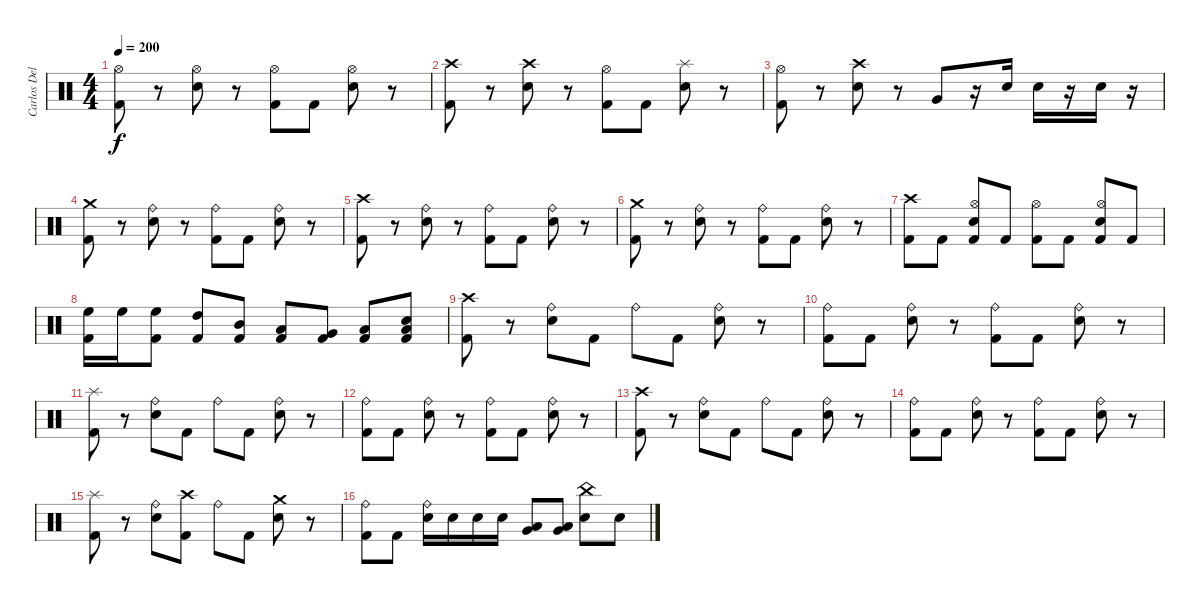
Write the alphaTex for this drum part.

\track ("Carlos Delgado" "Carlos Del") {instrument percussion}
\staff {score}
\articulation defaults
\ts (4 4)
\tempo 200
\clef neutral
\ks c
("Kick (hit) 2" "Hi-Hat (open)").8{dy f} r.8 ("Hi-Hat (open)" "Electric Snare (hit)").8 r.8 ("Hi-Hat (open)" "Kick (hit) 2").8 "Kick (hit) 2".8 ("Hi-Hat (open)" "Electric Snare (hit)").8 r.8 |
("Kick (hit) 2" "Crash high (hit)").8 r.8 ("Electric Snare (hit)" "Crash high (hit)").8 r.8 ("Hi-Hat (open)" "Kick (hit) 2").8 "Kick (hit) 2".8 ("Splash (hit)" "Electric Snare (hit)").8 r.8 |
("Kick (hit) 2" "Hi-Hat (open)").8 r.8 ("Electric Snare (hit)" "Crash high (hit)").8 r.8 "Very Low Tom (hit)".8 r.16 "Electric Snare (hit)".16 "Electric Snare (hit)".16 r.16 "Electric Snare (hit)".16 r.16 |
("Kick (hit) 2" "Crash medium (hit)").8 r.8 ("Electric Snare (hit)" "Ride (bell)").8 r.8 ("Ride (bell)" "Kick (hit) 2").8 "Kick (hit) 2".8 ("Ride (bell)" "Electric Snare (hit)").8 r.8 |
("Kick (hit) 2" "Crash high (hit)").8 r.8 ("Electric Snare (hit)" "Ride (bell)").8 r.8 ("Ride (bell)" "Kick (hit) 2").8 "Kick (hit) 2".8 ("Ride (bell)" "Electric Snare (hit)").8 r.8 |
("Crash medium (hit)" "Kick (hit) 2").8 r.8 ("Ride (bell)" "Electric Snare (hit)").8 r.8 ("Ride (bell)" "Kick (hit) 2").8 "Kick (hit) 2".8 ("Ride (bell)" "Electric Snare (hit)").8 r.8 |
("Kick (hit) 2" "Crash high (hit)").8 "Kick (hit) 2".8 ("Kick (hit) 2" "Hi-Hat (open)" "Electric Snare (hit)").8 "Kick (hit) 2".8 ("Kick (hit) 2" "Hi-Hat (open)").8 "Kick (hit) 2".8 ("Kick (hit) 2" "Electric Snare (hit)" "Hi-Hat (open)").8 "Kick (hit) 2".8 |
("Kick (hit) 2" "High Floor Tom (hit)").16 "High Floor Tom (hit)".16 ("Kick (hit) 2" "High Floor Tom (hit)").8 ("High Tom (hit)" "Kick (hit) 2").8 ("Kick (hit) 2" "Mid Tom (hit)").8 ("Low Tom (hit)" "Kick (hit) 2").8 ("Very Low Tom (hit)" "Kick (hit) 2").8 ("Low Floor Tom (hit)" "Kick (hit) 2").8 ("Electric Snare (hit)" "Low Floor Tom (hit)" "Kick (hit) 2").8 |
("Crash high (hit)" "Kick (hit) 2").8 r.8 ("Ride (bell)" "Electric Snare (hit)").8 "Kick (hit) 2".8 "Ride (bell)".8 "Kick (hit) 2".8 ("Electric Snare (hit)" "Ride (bell)").8 r.8 |
("Ride (bell)" "Kick (hit) 2").8 "Kick (hit) 2".8 ("Ride (bell)" "Electric Snare (hit)").8 r.8 ("Ride (bell)" "Kick (hit) 2").8 "Kick (hit) 2".8 ("Ride (bell)" "Electric Snare (hit)").8 r.8 |
("Splash (hit)" "Kick (hit) 2").8 r.8 ("Ride (bell)" "Electric Snare (hit)").8 "Kick (hit) 2".8 "Ride (bell)".8 "Kick (hit) 2".8 ("Electric Snare (hit)" "Ride (bell)").8 r.8 |
("Ride (bell)" "Kick (hit) 2").8 "Kick (hit) 2".8 ("Ride (bell)" "Electric Snare (hit)").8 r.8 ("Ride (bell)" "Kick (hit) 2").8 "Kick (hit) 2".8 ("Ride (bell)" "Electric Snare (hit)").8 r.8 |
("Crash high (hit)" "Kick (hit) 2").8 r.8 ("Ride (bell)" "Electric Snare (hit)").8 "Kick (hit) 2".8 "Ride (bell)".8 "Kick (hit) 2".8 ("Electric Snare (hit)" "Ride (bell)").8 r.8 |
("Ride (bell)" "Kick (hit) 2").8 "Kick (hit) 2".8 ("Ride (bell)" "Electric Snare (hit)").8 r.8 ("Ride (bell)" "Kick (hit) 2").8 "Kick (hit) 2".8 ("Ride (bell)" "Electric Snare (hit)").8 r.8 |
("Splash (hit)" "Kick (hit) 2").8 r.8 ("Ride (bell)" "Electric Snare (hit)").8 ("Crash high (hit)" "Kick (hit) 2").8 "Ride (bell)".8 "Kick (hit) 2".8 ("Electric Snare (hit)" "Crash medium (hit)").8 r.8 |
("Ride (bell)" "Kick (hit) 2").8 "Kick (hit) 2".8 ("Ride (bell)" "Electric Snare (hit)").16 "Electric Snare (hit)".16 "Electric Snare (hit)".16 "Electric Snare (hit)".16 ("Very Low Tom (hit)" "Low Floor Tom (hit)").8 ("Very Low Tom (hit)" "Low Floor Tom (hit)").8 ("China (hit)" "Electric Snare (hit)").8 "Electric Snare (hit)".8
